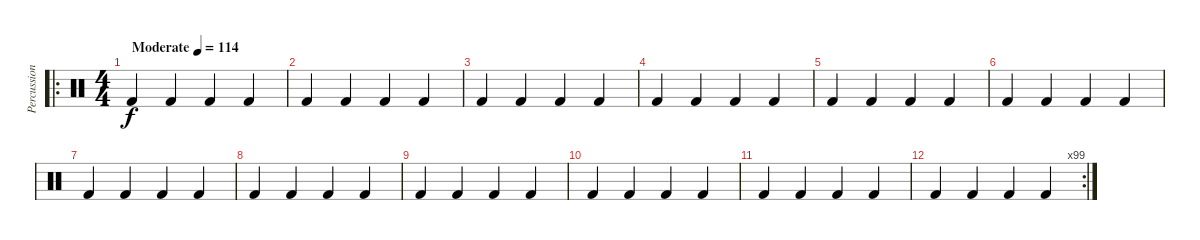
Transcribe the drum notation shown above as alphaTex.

\track ("Percussion" "Percussion") {instrument percussion}
\staff {score}
\articulation defaults
\ro
\ts (4 4)
\tempo (114 "Moderate")
\clef neutral
\ks c "Kick (hit) 2".4{dy f} "Kick (hit) 2".4 "Kick (hit) 2".4 "Kick (hit) 2".4
|
"Kick (hit) 2".4 "Kick (hit) 2".4 "Kick (hit) 2".4 "Kick (hit) 2".4 |
"Kick (hit) 2".4 "Kick (hit) 2".4 "Kick (hit) 2".4 "Kick (hit) 2".4 |
"Kick (hit) 2".4 "Kick (hit) 2".4 "Kick (hit) 2".4 "Kick (hit) 2".4 |
"Kick (hit) 2".4 "Kick (hit) 2".4 "Kick (hit) 2".4 "Kick (hit) 2".4 |
"Kick (hit) 2".4 "Kick (hit) 2".4 "Kick (hit) 2".4 "Kick (hit) 2".4 |
"Kick (hit) 2".4 "Kick (hit) 2".4 "Kick (hit) 2".4 "Kick (hit) 2".4 |
"Kick (hit) 2".4 "Kick (hit) 2".4 "Kick (hit) 2".4 "Kick (hit) 2".4 |
"Kick (hit) 2".4 "Kick (hit) 2".4 "Kick (hit) 2".4 "Kick (hit) 2".4 |
"Kick (hit) 2".4 "Kick (hit) 2".4 "Kick (hit) 2".4 "Kick (hit) 2".4 |
"Kick (hit) 2".4 "Kick (hit) 2".4 "Kick (hit) 2".4 "Kick (hit) 2".4 |
\rc 99 "Kick (hit) 2".4 "Kick (hit) 2".4 "Kick (hit) 2".4 "Kick (hit) 2".4
